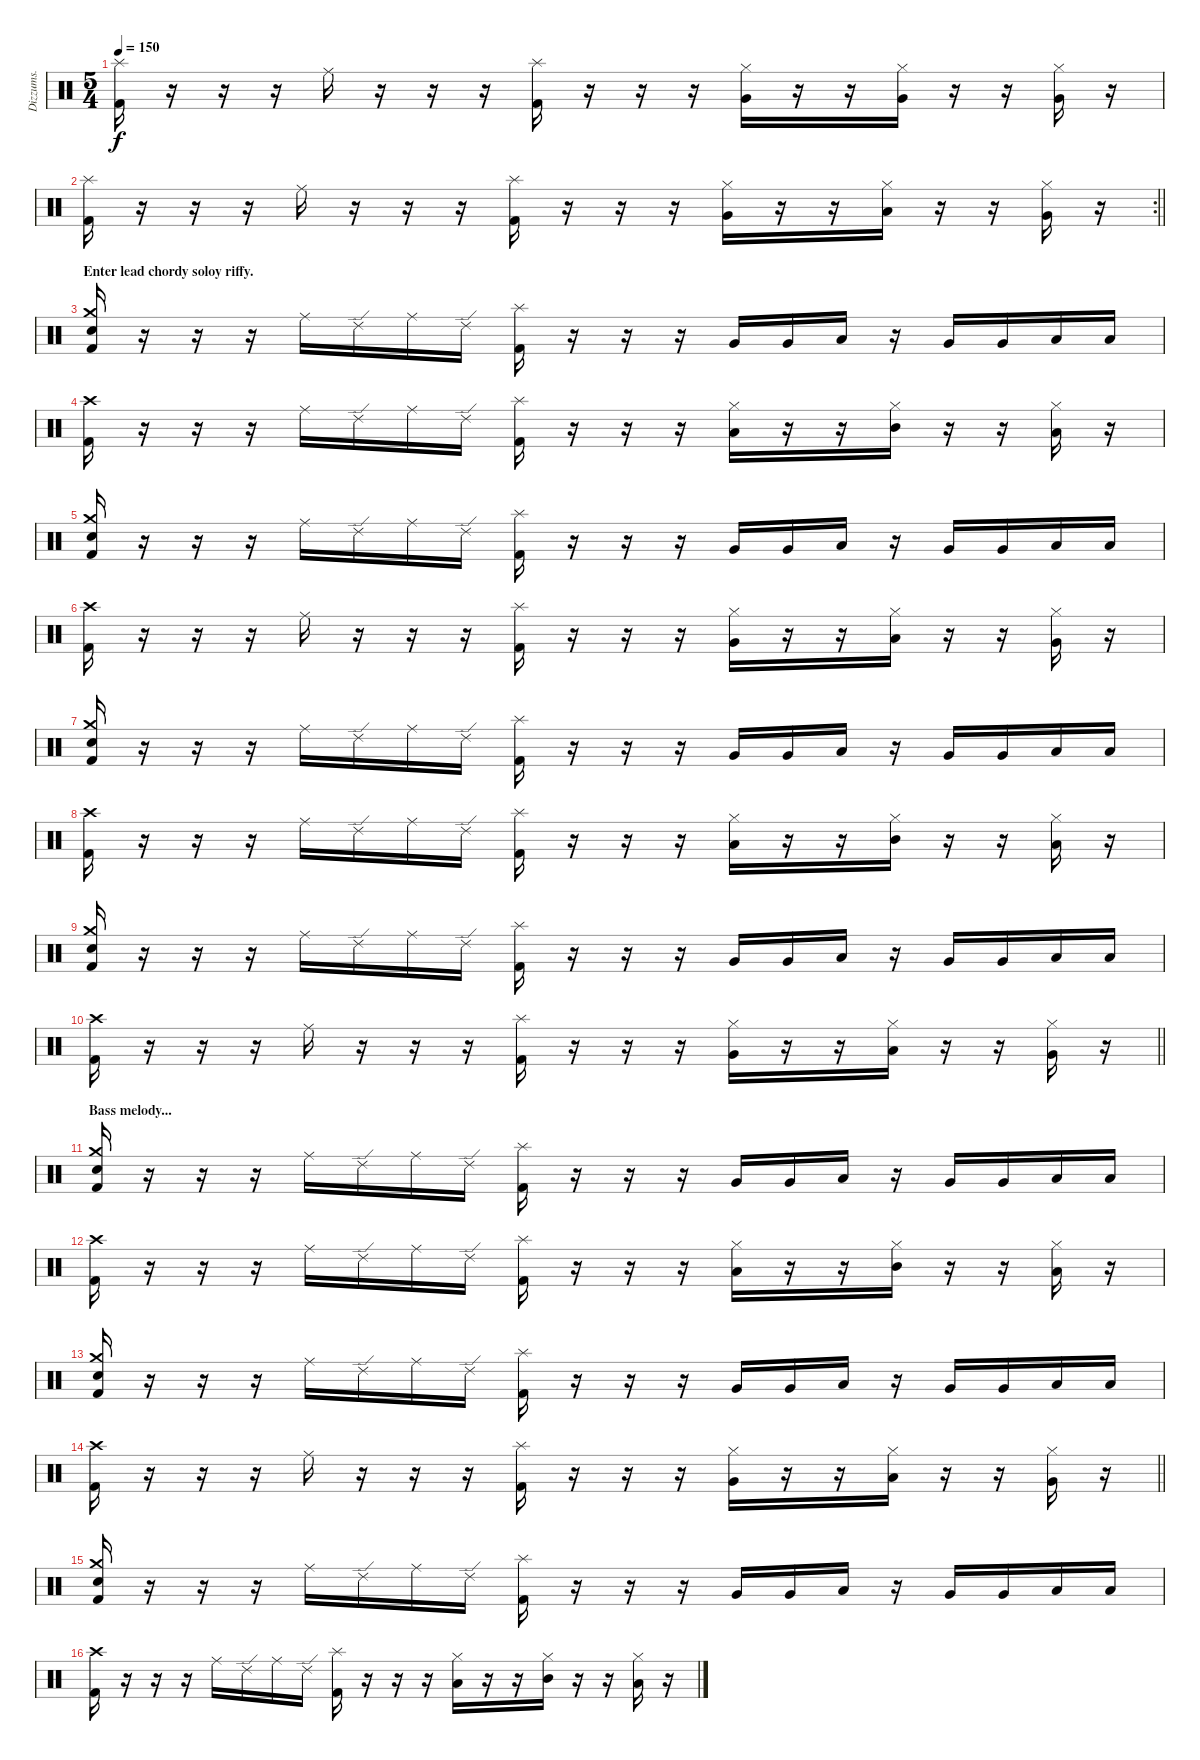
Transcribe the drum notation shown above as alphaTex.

\track ("Dizzums." "Dizzums.") {instrument percussion}
\staff {score}
\articulation defaults
\ts (5 4)
\tempo 150
\clef neutral
\ks c
("Splash (hit)" "Kick (hit) 2").16{dy f} r.16 r.16 r.16 "Ride (middle)".16 r.16 r.16 r.16 ("Splash (hit)" "Kick (hit) 2").16 r.16 r.16 r.16 ("Hi-Hat (closed)" "Very Low Tom (hit)").16 r.16 r.16 ("Hi-Hat (closed)" "Very Low Tom (hit)").16 r.16 r.16 ("Hi-Hat (closed)" "Very Low Tom (hit)").16 r.16 |
\rc 2
\barLineRight lightlight
("Splash (hit)" "Kick (hit) 2").16 r.16 r.16 r.16 "Ride (middle)".16 r.16 r.16 r.16 ("Splash (hit)" "Kick (hit) 2").16 r.16 r.16 r.16 ("Hi-Hat (closed)" "Very Low Tom (hit)").16 r.16 r.16 ("Hi-Hat (closed)" "Low Floor Tom (hit)").16 r.16 r.16 ("Hi-Hat (closed)" "Very Low Tom (hit)").16 r.16 |
\section ("" "Enter lead chordy soloy riffy.")
("Crash medium (hit)" "Electric Snare (hit)" "Kick (hit) 2").16 r.16 r.16 r.16 "Ride (middle)".16 "Ride (edge) 2".16 "Ride (middle)".16 "Ride (edge) 2".16 ("Splash (hit)" "Kick (hit) 2").16 r.16 r.16 r.16 "Very Low Tom (hit)".16 "Very Low Tom (hit)".16 "Low Tom (hit)".16 r.16 "Very Low Tom (hit)".16 "Very Low Tom (hit)".16 "Low Floor Tom (hit)".16 "Low Floor Tom (hit)".16 |
("Crash high (hit)" "Kick (hit) 2").16 r.16 r.16 r.16 "Ride (middle)".16 "Ride (edge) 2".16 "Ride (middle)".16 "Ride (edge) 2".16 ("Splash (hit)" "Kick (hit) 2").16 r.16 r.16 r.16 ("Hi-Hat (closed)" "Low Tom (hit)").16 r.16 r.16 ("Hi-Hat (closed)" "Mid Tom (hit)").16 r.16 r.16 ("Hi-Hat (closed)" "Low Tom (hit)").16 r.16 |
("Crash medium (hit)" "Electric Snare (hit)" "Kick (hit) 2").16 r.16 r.16 r.16 "Ride (middle)".16 "Ride (edge) 2".16 "Ride (middle)".16 "Ride (edge) 2".16 ("Splash (hit)" "Kick (hit) 2").16 r.16 r.16 r.16 "Very Low Tom (hit)".16 "Very Low Tom (hit)".16 "Low Tom (hit)".16 r.16 "Very Low Tom (hit)".16 "Very Low Tom (hit)".16 "Low Floor Tom (hit)".16 "Low Floor Tom (hit)".16 |
("Crash high (hit)" "Kick (hit) 2").16 r.16 r.16 r.16 "Ride (middle)".16 r.16 r.16 r.16 ("Splash (hit)" "Kick (hit) 2").16 r.16 r.16 r.16 ("Hi-Hat (closed)" "Very Low Tom (hit)").16 r.16 r.16 ("Hi-Hat (closed)" "Low Floor Tom (hit)").16 r.16 r.16 ("Hi-Hat (closed)" "Very Low Tom (hit)").16 r.16 |
("Crash medium (hit)" "Electric Snare (hit)" "Kick (hit) 2").16 r.16 r.16 r.16 "Ride (middle)".16 "Ride (edge) 2".16 "Ride (middle)".16 "Ride (edge) 2".16 ("Splash (hit)" "Kick (hit) 2").16 r.16 r.16 r.16 "Very Low Tom (hit)".16 "Very Low Tom (hit)".16 "Low Tom (hit)".16 r.16 "Very Low Tom (hit)".16 "Very Low Tom (hit)".16 "Low Floor Tom (hit)".16 "Low Floor Tom (hit)".16 |
("Crash high (hit)" "Kick (hit) 2").16 r.16 r.16 r.16 "Ride (middle)".16 "Ride (edge) 2".16 "Ride (middle)".16 "Ride (edge) 2".16 ("Splash (hit)" "Kick (hit) 2").16 r.16 r.16 r.16 ("Hi-Hat (closed)" "Low Tom (hit)").16 r.16 r.16 ("Hi-Hat (closed)" "Mid Tom (hit)").16 r.16 r.16 ("Hi-Hat (closed)" "Low Tom (hit)").16 r.16 |
("Crash medium (hit)" "Electric Snare (hit)" "Kick (hit) 2").16 r.16 r.16 r.16 "Ride (middle)".16 "Ride (edge) 2".16 "Ride (middle)".16 "Ride (edge) 2".16 ("Splash (hit)" "Kick (hit) 2").16 r.16 r.16 r.16 "Very Low Tom (hit)".16 "Very Low Tom (hit)".16 "Low Tom (hit)".16 r.16 "Very Low Tom (hit)".16 "Very Low Tom (hit)".16 "Low Floor Tom (hit)".16 "Low Floor Tom (hit)".16 |
\barLineRight lightlight
("Crash high (hit)" "Kick (hit) 2").16 r.16 r.16 r.16 "Ride (middle)".16 r.16 r.16 r.16 ("Splash (hit)" "Kick (hit) 2").16 r.16 r.16 r.16 ("Hi-Hat (closed)" "Very Low Tom (hit)").16 r.16 r.16 ("Hi-Hat (closed)" "Low Floor Tom (hit)").16 r.16 r.16 ("Hi-Hat (closed)" "Very Low Tom (hit)").16 r.16 |
\section ("" "Bass melody...")
("Crash medium (hit)" "Electric Snare (hit)" "Kick (hit) 2").16 r.16 r.16 r.16 "Ride (middle)".16 "Ride (edge) 2".16 "Ride (middle)".16 "Ride (edge) 2".16 ("Splash (hit)" "Kick (hit) 2").16 r.16 r.16 r.16 "Very Low Tom (hit)".16 "Very Low Tom (hit)".16 "Low Tom (hit)".16 r.16 "Very Low Tom (hit)".16 "Very Low Tom (hit)".16 "Low Floor Tom (hit)".16 "Low Floor Tom (hit)".16 |
("Crash high (hit)" "Kick (hit) 2").16 r.16 r.16 r.16 "Ride (middle)".16 "Ride (edge) 2".16 "Ride (middle)".16 "Ride (edge) 2".16 ("Splash (hit)" "Kick (hit) 2").16 r.16 r.16 r.16 ("Hi-Hat (closed)" "Low Tom (hit)").16 r.16 r.16 ("Hi-Hat (closed)" "Mid Tom (hit)").16 r.16 r.16 ("Hi-Hat (closed)" "Low Tom (hit)").16 r.16 |
("Crash medium (hit)" "Electric Snare (hit)" "Kick (hit) 2").16 r.16 r.16 r.16 "Ride (middle)".16 "Ride (edge) 2".16 "Ride (middle)".16 "Ride (edge) 2".16 ("Splash (hit)" "Kick (hit) 2").16 r.16 r.16 r.16 "Very Low Tom (hit)".16 "Very Low Tom (hit)".16 "Low Tom (hit)".16 r.16 "Very Low Tom (hit)".16 "Very Low Tom (hit)".16 "Low Floor Tom (hit)".16 "Low Floor Tom (hit)".16 |
\barLineRight lightlight
("Crash high (hit)" "Kick (hit) 2").16 r.16 r.16 r.16 "Ride (middle)".16 r.16 r.16 r.16 ("Splash (hit)" "Kick (hit) 2").16 r.16 r.16 r.16 ("Hi-Hat (closed)" "Very Low Tom (hit)").16 r.16 r.16 ("Hi-Hat (closed)" "Low Floor Tom (hit)").16 r.16 r.16 ("Hi-Hat (closed)" "Very Low Tom (hit)").16 r.16 |
("Crash medium (hit)" "Electric Snare (hit)" "Kick (hit) 2").16 r.16 r.16 r.16 "Ride (middle)".16 "Ride (edge) 2".16 "Ride (middle)".16 "Ride (edge) 2".16 ("Splash (hit)" "Kick (hit) 2").16 r.16 r.16 r.16 "Very Low Tom (hit)".16 "Very Low Tom (hit)".16 "Low Tom (hit)".16 r.16 "Very Low Tom (hit)".16 "Very Low Tom (hit)".16 "Low Floor Tom (hit)".16 "Low Floor Tom (hit)".16 |
("Crash high (hit)" "Kick (hit) 2").16 r.16 r.16 r.16 "Ride (middle)".16 "Ride (edge) 2".16 "Ride (middle)".16 "Ride (edge) 2".16 ("Splash (hit)" "Kick (hit) 2").16 r.16 r.16 r.16 ("Hi-Hat (closed)" "Low Tom (hit)").16 r.16 r.16 ("Hi-Hat (closed)" "Mid Tom (hit)").16 r.16 r.16 ("Hi-Hat (closed)" "Low Tom (hit)").16 r.16
